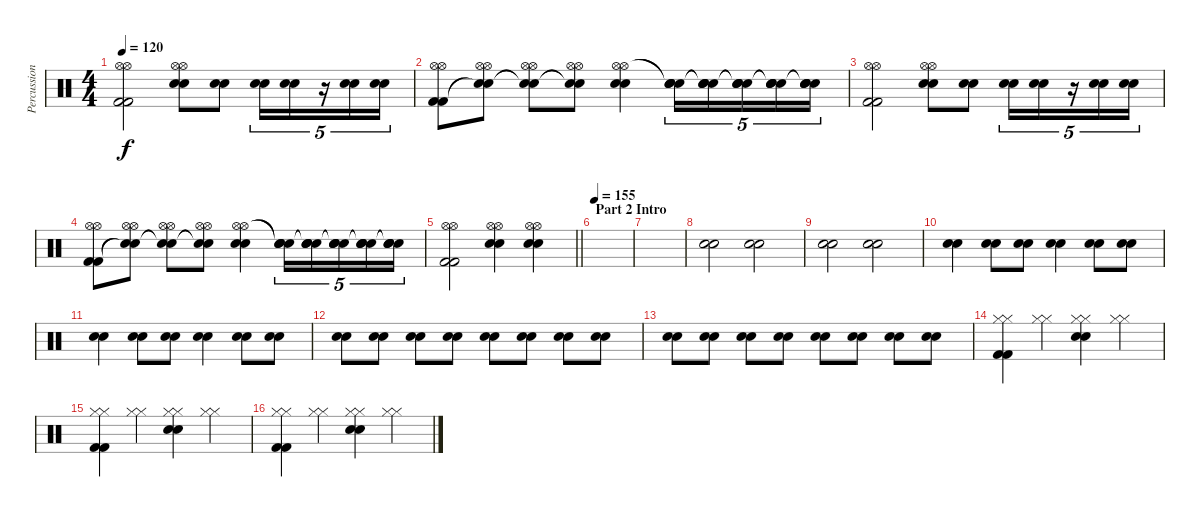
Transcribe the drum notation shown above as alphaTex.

\track ("Percussion" "Percussion") {instrument percussion}
\staff {score}
\articulation defaults
\ts (4 4)
\tempo 120
\clef neutral
\ks c
("Hi-Hat (open)" "Hi-Hat (open)" "Kick (hit) 2" "Kick (hit) 2").2{dy f} ("Hi-Hat (open)" "Hi-Hat (open)" "Electric Snare (hit)" "Electric Snare (hit)").8 ("Electric Snare (hit)" "Electric Snare (hit)").8 ("Electric Snare (hit)" "Electric Snare (hit)").16{tu (5 4)} ("Electric Snare (hit)" "Electric Snare (hit)").16{tu (5 4)} r.16{tu (5 4)} ("Electric Snare (hit)" "Electric Snare (hit)").16{tu (5 4)} ("Electric Snare (hit)" "Electric Snare (hit)").16{tu (5 4)} |
("Hi-Hat (open)" "Hi-Hat (open)" "Kick (hit) 2" "Kick (hit) 2").8 ("Hi-Hat (open)" "Hi-Hat (open)" "Snare (hit)"{t} "Snare (hit)"{t}).8 ("Hi-Hat (open)" "Hi-Hat (open)" "Snare (hit)"{t} "Snare (hit)"{t}).8 ("Hi-Hat (open)" "Hi-Hat (open)" "Snare (hit)"{t} "Snare (hit)"{t}).8 ("Hi-Hat (open)" "Hi-Hat (open)" "Electric Snare (hit)" "Electric Snare (hit)").4 ("Snare (hit)"{t} "Snare (hit)"{t} "Electric Snare (hit)" "Electric Snare (hit)").16{tu (5 4)} ("Snare (hit)"{t} "Snare (hit)"{t} "Electric Snare (hit)" "Electric Snare (hit)").16{tu (5 4)} ("Snare (hit)"{t} "Snare (hit)"{t} "Electric Snare (hit)" "Electric Snare (hit)").16{tu (5 4)} ("Snare (hit)"{t} "Snare (hit)"{t} "Electric Snare (hit)" "Electric Snare (hit)").16{tu (5 4)} ("Snare (hit)"{t} "Snare (hit)"{t} "Electric Snare (hit)" "Electric Snare (hit)").16{tu (5 4)} |
("Hi-Hat (open)" "Hi-Hat (open)" "Kick (hit) 2" "Kick (hit) 2").2 ("Hi-Hat (open)" "Hi-Hat (open)" "Electric Snare (hit)" "Electric Snare (hit)").8 ("Electric Snare (hit)" "Electric Snare (hit)").8 ("Electric Snare (hit)" "Electric Snare (hit)").16{tu (5 4)} ("Electric Snare (hit)" "Electric Snare (hit)").16{tu (5 4)} r.16{tu (5 4)} ("Electric Snare (hit)" "Electric Snare (hit)").16{tu (5 4)} ("Electric Snare (hit)" "Electric Snare (hit)").16{tu (5 4)} |
("Hi-Hat (open)" "Hi-Hat (open)" "Kick (hit) 2" "Kick (hit) 2").8 ("Hi-Hat (open)" "Hi-Hat (open)" "Snare (hit)"{t} "Snare (hit)"{t}).8 ("Hi-Hat (open)" "Hi-Hat (open)" "Snare (hit)"{t} "Snare (hit)"{t}).8 ("Hi-Hat (open)" "Hi-Hat (open)" "Snare (hit)"{t} "Snare (hit)"{t}).8 ("Hi-Hat (open)" "Hi-Hat (open)" "Electric Snare (hit)" "Electric Snare (hit)").4 ("Snare (hit)"{t} "Snare (hit)"{t} "Electric Snare (hit)" "Electric Snare (hit)").16{tu (5 4)} ("Snare (hit)"{t} "Snare (hit)"{t} "Electric Snare (hit)" "Electric Snare (hit)").16{tu (5 4)} ("Snare (hit)"{t} "Snare (hit)"{t} "Electric Snare (hit)" "Electric Snare (hit)").16{tu (5 4)} ("Snare (hit)"{t} "Snare (hit)"{t} "Electric Snare (hit)" "Electric Snare (hit)").16{tu (5 4)} ("Snare (hit)"{t} "Snare (hit)"{t} "Electric Snare (hit)" "Electric Snare (hit)").16{tu (5 4)} |
\barLineRight lightlight
("Hi-Hat (open)" "Hi-Hat (open)" "Kick (hit) 2" "Kick (hit) 2").2 ("Hi-Hat (open)" "Hi-Hat (open)" "Electric Snare (hit)" "Electric Snare (hit)").4 ("Hi-Hat (open)" "Hi-Hat (open)" "Electric Snare (hit)" "Electric Snare (hit)").4 |
\section ("" "Part 2 Intro")
\tempo 155
|
|
("Electric Snare (hit)" "Electric Snare (hit)").2 ("Electric Snare (hit)" "Electric Snare (hit)").2 |
("Electric Snare (hit)" "Electric Snare (hit)").2 ("Electric Snare (hit)" "Electric Snare (hit)").2 |
("Electric Snare (hit)" "Electric Snare (hit)").4 ("Electric Snare (hit)" "Electric Snare (hit)").8 ("Electric Snare (hit)" "Electric Snare (hit)").8 ("Electric Snare (hit)" "Electric Snare (hit)").4 ("Electric Snare (hit)" "Electric Snare (hit)").8 ("Electric Snare (hit)" "Electric Snare (hit)").8 |
("Electric Snare (hit)" "Electric Snare (hit)").4 ("Electric Snare (hit)" "Electric Snare (hit)").8 ("Electric Snare (hit)" "Electric Snare (hit)").8 ("Electric Snare (hit)" "Electric Snare (hit)").4 ("Electric Snare (hit)" "Electric Snare (hit)").8 ("Electric Snare (hit)" "Electric Snare (hit)").8 |
("Electric Snare (hit)" "Electric Snare (hit)").8 ("Electric Snare (hit)" "Electric Snare (hit)").8 ("Electric Snare (hit)" "Electric Snare (hit)").8 ("Electric Snare (hit)" "Electric Snare (hit)").8 ("Electric Snare (hit)" "Electric Snare (hit)").8 ("Electric Snare (hit)" "Electric Snare (hit)").8 ("Electric Snare (hit)" "Electric Snare (hit)").8 ("Electric Snare (hit)" "Electric Snare (hit)").8 |
("Electric Snare (hit)" "Electric Snare (hit)").8 ("Electric Snare (hit)" "Electric Snare (hit)").8 ("Electric Snare (hit)" "Electric Snare (hit)").8 ("Electric Snare (hit)" "Electric Snare (hit)").8 ("Electric Snare (hit)" "Electric Snare (hit)").8 ("Electric Snare (hit)" "Electric Snare (hit)").8 ("Electric Snare (hit)" "Electric Snare (hit)").8 ("Electric Snare (hit)" "Electric Snare (hit)").8 |
("Hi-Hat (closed)" "Hi-Hat (closed)" "Kick (hit) 2" "Kick (hit) 2").4 ("Hi-Hat (closed)" "Hi-Hat (closed)").4 ("Hi-Hat (closed)" "Hi-Hat (closed)" "Electric Snare (hit)" "Electric Snare (hit)").4 ("Hi-Hat (closed)" "Hi-Hat (closed)").4 |
("Hi-Hat (closed)" "Hi-Hat (closed)" "Kick (hit) 2" "Kick (hit) 2").4 ("Hi-Hat (closed)" "Hi-Hat (closed)").4 ("Hi-Hat (closed)" "Hi-Hat (closed)" "Electric Snare (hit)" "Electric Snare (hit)").4 ("Hi-Hat (closed)" "Hi-Hat (closed)").4 |
("Hi-Hat (closed)" "Hi-Hat (closed)" "Kick (hit) 2" "Kick (hit) 2").4 ("Hi-Hat (closed)" "Hi-Hat (closed)").4 ("Hi-Hat (closed)" "Hi-Hat (closed)" "Electric Snare (hit)" "Electric Snare (hit)").4 ("Hi-Hat (closed)" "Hi-Hat (closed)").4
